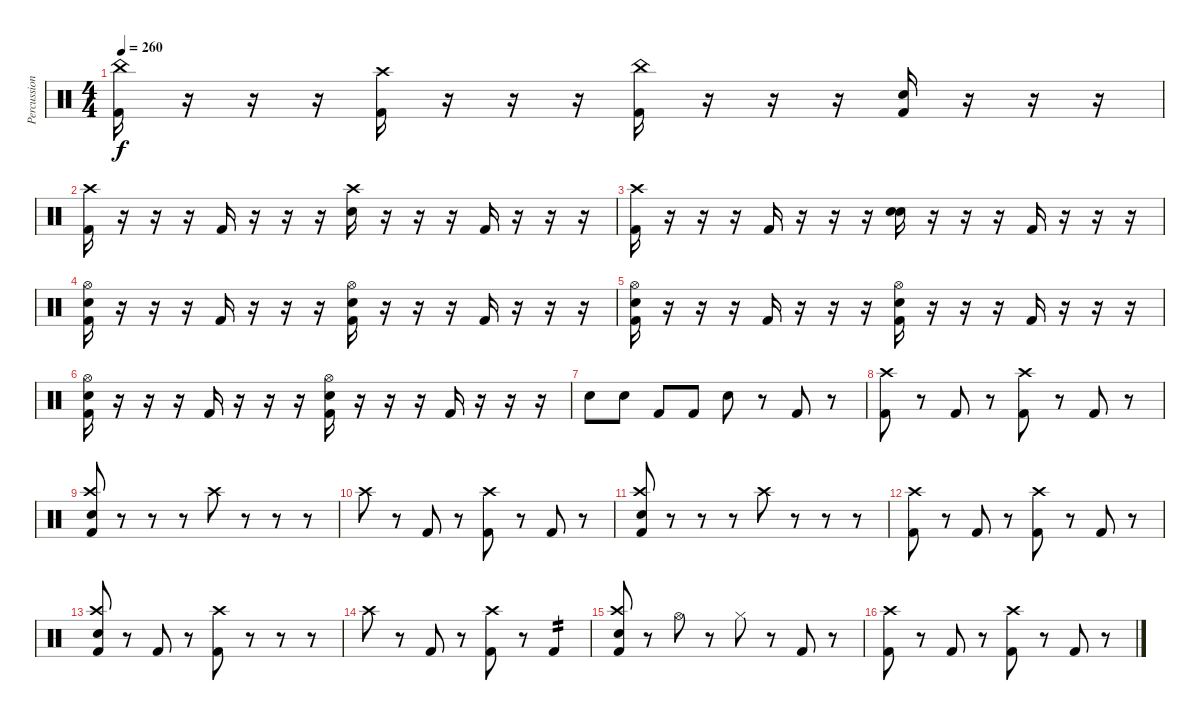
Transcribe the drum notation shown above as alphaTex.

\track ("Percussion" "Percussion") {instrument percussion}
\staff {score}
\articulation defaults
\ts (4 4)
\tempo 260
\clef neutral
\ks c
("Kick (hit) 2" "China (hit)").16{dy f} r.16 r.16 r.16 ("Kick (hit) 2" "Crash high (hit)").16 r.16 r.16 r.16 ("Kick (hit) 2" "China (hit)").16 r.16 r.16 r.16 ("Kick (hit) 2" "Snare (hit) 2").16 r.16 r.16 r.16 |
("Kick (hit) 2" "Crash high (hit)").16 r.16 r.16 r.16 "Kick (hit) 2".16 r.16 r.16 r.16 ("Snare (hit) 2" "Crash high (hit)").16 r.16 r.16 r.16 "Kick (hit) 2".16 r.16 r.16 r.16 |
("Kick (hit) 2" "Crash high (hit)").16 r.16 r.16 r.16 "Kick (hit) 2".16 r.16 r.16 r.16 ("Snare (hit) 2" "Hand Clap (hit)").16 r.16 r.16 r.16 "Kick (hit) 2".16 r.16 r.16 r.16 |
("Kick (hit) 2" "Snare (hit) 2" "Hi-Hat (open)").16 r.16 r.16 r.16 "Kick (hit) 2".16 r.16 r.16 r.16 ("Kick (hit) 2" "Snare (hit) 2" "Hi-Hat (open)").16 r.16 r.16 r.16 "Kick (hit) 2".16 r.16 r.16 r.16 |
("Kick (hit) 2" "Snare (hit) 2" "Hi-Hat (open)").16 r.16 r.16 r.16 "Kick (hit) 2".16 r.16 r.16 r.16 ("Kick (hit) 2" "Snare (hit) 2" "Hi-Hat (open)").16 r.16 r.16 r.16 "Kick (hit) 2".16 r.16 r.16 r.16 |
("Kick (hit) 2" "Snare (hit) 2" "Hi-Hat (open)").16 r.16 r.16 r.16 "Kick (hit) 2".16 r.16 r.16 r.16 ("Kick (hit) 2" "Snare (hit) 2" "Hi-Hat (open)").16 r.16 r.16 r.16 "Kick (hit) 2".16 r.16 r.16 r.16 |
"Snare (hit) 2".8 "Snare (hit) 2".8 "Kick (hit) 2".8 "Kick (hit) 2".8 "Snare (hit) 2".8 r.8 "Kick (hit) 2".8 r.8 |
("Kick (hit) 2" "Crash high (hit)").8 r.8 "Kick (hit) 2".8 r.8 ("Kick (hit) 2" "Crash high (hit)").8 r.8 "Kick (hit) 2".8 r.8 |
("Kick (hit) 2" "Snare (hit) 2" "Crash high (hit)").8 r.8 r.8 r.8 "Crash high (hit)".8 r.8 r.8 r.8 |
"Crash high (hit)".8 r.8 "Kick (hit) 2".8 r.8 ("Kick (hit) 2" "Crash high (hit)").8 r.8 "Kick (hit) 2".8 r.8 |
("Kick (hit) 2" "Snare (hit) 2" "Crash high (hit)").8 r.8 r.8 r.8 "Crash high (hit)".8 r.8 r.8 r.8 |
("Kick (hit) 2" "Crash high (hit)").8 r.8 "Kick (hit) 2".8 r.8 ("Kick (hit) 2" "Crash high (hit)").8 r.8 "Kick (hit) 2".8 r.8 |
("Kick (hit) 2" "Snare (hit) 2" "Crash high (hit)").8 r.8 "Kick (hit) 2".8 r.8 ("Kick (hit) 2" "Crash high (hit)").8 r.8 r.8 r.8 |
"Crash high (hit)".8 r.8 "Kick (hit) 2".8 r.8 ("Kick (hit) 2" "Crash high (hit)").8 r.8 "Kick (hit) 2".4{tp 2} |
("Kick (hit) 2" "Snare (hit) 2" "Crash high (hit)").8 r.8 "Hi-Hat (open)".8 r.8 "Hi-Hat (closed)".8 r.8 "Kick (hit) 2".8 r.8 |
("Kick (hit) 2" "Crash high (hit)").8 r.8 "Kick (hit) 2".8 r.8 ("Kick (hit) 2" "Crash high (hit)").8 r.8 "Kick (hit) 2".8 r.8
